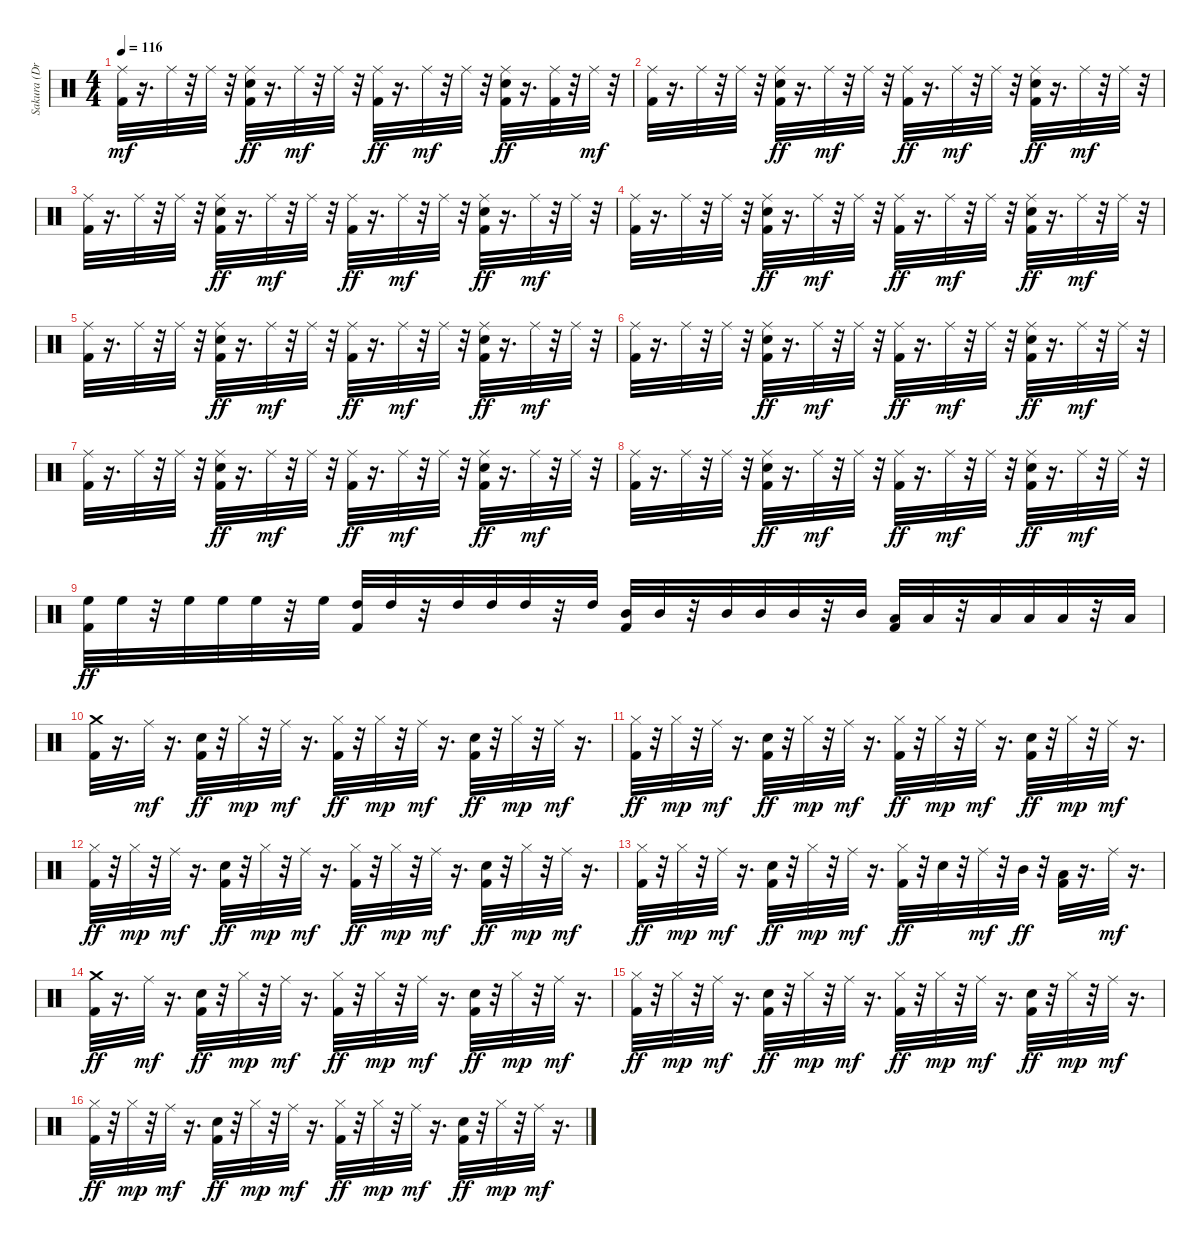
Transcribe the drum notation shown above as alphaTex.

\track ("Sakura (Drums)" "Sakura (Dr") {instrument percussion}
\staff {score}
\articulation defaults
\ts (4 4)
\tempo 116
\clef neutral
\ks c
("Kick (hit) 2" "Ride (middle)").32{dy mf} r.16{d} "Ride (middle)".32 r.32 "Ride (middle)".32 r.32 ("Ride (middle)" "Electric Snare (hit)" "Kick (hit) 2").32{dy ff} r.16{d} "Ride (middle)".32{dy mf} r.32 "Ride (middle)".32 r.32 ("Ride (middle)" "Kick (hit) 2").32{dy ff} r.16{d} "Ride (middle)".32{dy mf} r.32 "Ride (middle)".32 r.32 ("Ride (middle)" "Electric Snare (hit)" "Kick (hit) 2").32{dy ff} r.16{d} ("Ride (middle)" "Kick (hit) 2").32 r.32 "Ride (middle)".32{dy mf} r.32 |
("Kick (hit) 2" "Ride (middle)").32 r.16{d} "Ride (middle)".32 r.32 "Ride (middle)".32 r.32 ("Ride (middle)" "Electric Snare (hit)" "Kick (hit) 2").32{dy ff} r.16{d} "Ride (middle)".32{dy mf} r.32 "Ride (middle)".32 r.32 ("Ride (middle)" "Kick (hit) 2").32{dy ff} r.16{d} "Ride (middle)".32{dy mf} r.32 "Ride (middle)".32 r.32 ("Ride (middle)" "Electric Snare (hit)" "Kick (hit) 2").32{dy ff} r.16{d} "Ride (middle)".32{dy mf} r.32 "Ride (middle)".32 r.32 |
("Kick (hit) 2" "Ride (middle)").32 r.16{d} "Ride (middle)".32 r.32 "Ride (middle)".32 r.32 ("Ride (middle)" "Electric Snare (hit)" "Kick (hit) 2").32{dy ff} r.16{d} "Ride (middle)".32{dy mf} r.32 "Ride (middle)".32 r.32 ("Ride (middle)" "Kick (hit) 2").32{dy ff} r.16{d} "Ride (middle)".32{dy mf} r.32 "Ride (middle)".32 r.32 ("Ride (middle)" "Electric Snare (hit)" "Kick (hit) 2").32{dy ff} r.16{d} "Ride (middle)".32{dy mf} r.32 "Ride (middle)".32 r.32 |
("Kick (hit) 2" "Ride (middle)").32 r.16{d} "Ride (middle)".32 r.32 "Ride (middle)".32 r.32 ("Ride (middle)" "Electric Snare (hit)" "Kick (hit) 2").32{dy ff} r.16{d} "Ride (middle)".32{dy mf} r.32 "Ride (middle)".32 r.32 ("Ride (middle)" "Kick (hit) 2").32{dy ff} r.16{d} "Ride (middle)".32{dy mf} r.32 "Ride (middle)".32 r.32 ("Ride (middle)" "Electric Snare (hit)" "Kick (hit) 2").32{dy ff} r.16{d} "Ride (middle)".32{dy mf} r.32 "Ride (middle)".32 r.32 |
("Kick (hit) 2" "Ride (middle)").32 r.16{d} "Ride (middle)".32 r.32 "Ride (middle)".32 r.32 ("Ride (middle)" "Electric Snare (hit)" "Kick (hit) 2").32{dy ff} r.16{d} "Ride (middle)".32{dy mf} r.32 "Ride (middle)".32 r.32 ("Ride (middle)" "Kick (hit) 2").32{dy ff} r.16{d} "Ride (middle)".32{dy mf} r.32 "Ride (middle)".32 r.32 ("Ride (middle)" "Electric Snare (hit)" "Kick (hit) 2").32{dy ff} r.16{d} "Ride (middle)".32{dy mf} r.32 "Ride (middle)".32 r.32 |
("Kick (hit) 2" "Ride (middle)").32 r.16{d} "Ride (middle)".32 r.32 "Ride (middle)".32 r.32 ("Ride (middle)" "Electric Snare (hit)" "Kick (hit) 2").32{dy ff} r.16{d} "Ride (middle)".32{dy mf} r.32 "Ride (middle)".32 r.32 ("Ride (middle)" "Kick (hit) 2").32{dy ff} r.16{d} "Ride (middle)".32{dy mf} r.32 "Ride (middle)".32 r.32 ("Ride (middle)" "Electric Snare (hit)" "Kick (hit) 2").32{dy ff} r.16{d} "Ride (middle)".32{dy mf} r.32 "Ride (middle)".32 r.32 |
("Kick (hit) 2" "Ride (middle)").32 r.16{d} "Ride (middle)".32 r.32 "Ride (middle)".32 r.32 ("Ride (middle)" "Electric Snare (hit)" "Kick (hit) 2").32{dy ff} r.16{d} "Ride (middle)".32{dy mf} r.32 "Ride (middle)".32 r.32 ("Ride (middle)" "Kick (hit) 2").32{dy ff} r.16{d} "Ride (middle)".32{dy mf} r.32 "Ride (middle)".32 r.32 ("Ride (middle)" "Electric Snare (hit)" "Kick (hit) 2").32{dy ff} r.16{d} "Ride (middle)".32{dy mf} r.32 "Ride (middle)".32 r.32 |
("Kick (hit) 2" "Ride (middle)").32 r.16{d} "Ride (middle)".32 r.32 "Ride (middle)".32 r.32 ("Ride (middle)" "Electric Snare (hit)" "Kick (hit) 2").32{dy ff} r.16{d} "Ride (middle)".32{dy mf} r.32 "Ride (middle)".32 r.32 ("Ride (middle)" "Kick (hit) 2").32{dy ff} r.16{d} "Ride (middle)".32{dy mf} r.32 "Ride (middle)".32 r.32 ("Ride (middle)" "Electric Snare (hit)" "Kick (hit) 2").32{dy ff} r.16{d} "Ride (middle)".32{dy mf} r.32 "Ride (middle)".32 r.32 |
("High Floor Tom (hit)" "Kick (hit) 2").32{dy ff} "High Floor Tom (hit)".32 r.32 "High Floor Tom (hit)".32 "High Floor Tom (hit)".32 "High Floor Tom (hit)".32 r.32 "High Floor Tom (hit)".32 ("High Tom (hit)" "Kick (hit) 2").32 "High Tom (hit)".32 r.32 "High Tom (hit)".32 "High Tom (hit)".32 "High Tom (hit)".32 r.32 "High Tom (hit)".32 ("Mid Tom (hit)" "Kick (hit) 2").32 "Mid Tom (hit)".32 r.32 "Mid Tom (hit)".32 "Mid Tom (hit)".32 "Mid Tom (hit)".32 r.32 "Mid Tom (hit)".32 ("Low Tom (hit)" "Kick (hit) 2").32 "Low Tom (hit)".32 r.32 "Low Tom (hit)".32 "Low Tom (hit)".32 "Low Tom (hit)".32 r.32 "Low Tom (hit)".32 |
("Crash medium (hit)" "Kick (hit) 2").32 r.16{d} "Ride (middle)".32{dy mf} r.16{d} ("Electric Snare (hit)" "Kick (hit) 2").32{dy ff} r.32 "Hi-Hat (closed)".32{dy mp} r.32 "Ride (middle)".32{dy mf} r.16{d} ("Hi-Hat (closed)" "Kick (hit) 2").32{dy ff} r.32 "Hi-Hat (closed)".32{dy mp} r.32 "Ride (middle)".32{dy mf} r.16{d} ("Electric Snare (hit)" "Kick (hit) 2").32{dy ff} r.32 "Hi-Hat (closed)".32{dy mp} r.32 "Ride (middle)".32{dy mf} r.16{d} |
("Hi-Hat (closed)" "Kick (hit) 2").32{dy ff} r.32 "Hi-Hat (closed)".32{dy mp} r.32 "Ride (middle)".32{dy mf} r.16{d} ("Electric Snare (hit)" "Kick (hit) 2").32{dy ff} r.32 "Hi-Hat (closed)".32{dy mp} r.32 "Ride (middle)".32{dy mf} r.16{d} ("Hi-Hat (closed)" "Kick (hit) 2").32{dy ff} r.32 "Hi-Hat (closed)".32{dy mp} r.32 "Ride (middle)".32{dy mf} r.16{d} ("Electric Snare (hit)" "Kick (hit) 2").32{dy ff} r.32 "Hi-Hat (closed)".32{dy mp} r.32 "Ride (middle)".32{dy mf} r.16{d} |
("Hi-Hat (closed)" "Kick (hit) 2").32{dy ff} r.32 "Hi-Hat (closed)".32{dy mp} r.32 "Ride (middle)".32{dy mf} r.16{d} ("Electric Snare (hit)" "Kick (hit) 2").32{dy ff} r.32 "Hi-Hat (closed)".32{dy mp} r.32 "Ride (middle)".32{dy mf} r.16{d} ("Hi-Hat (closed)" "Kick (hit) 2").32{dy ff} r.32 "Hi-Hat (closed)".32{dy mp} r.32 "Ride (middle)".32{dy mf} r.16{d} ("Electric Snare (hit)" "Kick (hit) 2").32{dy ff} r.32 "Hi-Hat (closed)".32{dy mp} r.32 "Ride (middle)".32{dy mf} r.16{d} |
("Hi-Hat (closed)" "Kick (hit) 2").32{dy ff} r.32 "Hi-Hat (closed)".32{dy mp} r.32 "Ride (middle)".32{dy mf} r.16{d} ("Electric Snare (hit)" "Kick (hit) 2").32{dy ff} r.32 "Hi-Hat (closed)".32{dy mp} r.32 "Ride (middle)".32{dy mf} r.16{d} ("Hi-Hat (closed)" "Kick (hit) 2").32{dy ff} r.32 "Electric Snare (hit)".32 r.32 "Ride (middle)".32{dy mf} r.32 "Mid Tom (hit)".32{dy ff} r.32 ("Low Tom (hit)" "Kick (hit) 2").32 r.16{d} "Ride (middle)".32{dy mf} r.16{d} |
("Crash medium (hit)" "Kick (hit) 2").32{dy ff} r.16{d} "Ride (middle)".32{dy mf} r.16{d} ("Electric Snare (hit)" "Kick (hit) 2").32{dy ff} r.32 "Hi-Hat (closed)".32{dy mp} r.32 "Ride (middle)".32{dy mf} r.16{d} ("Hi-Hat (closed)" "Kick (hit) 2").32{dy ff} r.32 "Hi-Hat (closed)".32{dy mp} r.32 "Ride (middle)".32{dy mf} r.16{d} ("Electric Snare (hit)" "Kick (hit) 2").32{dy ff} r.32 "Hi-Hat (closed)".32{dy mp} r.32 "Ride (middle)".32{dy mf} r.16{d} |
("Hi-Hat (closed)" "Kick (hit) 2").32{dy ff} r.32 "Hi-Hat (closed)".32{dy mp} r.32 "Ride (middle)".32{dy mf} r.16{d} ("Electric Snare (hit)" "Kick (hit) 2").32{dy ff} r.32 "Hi-Hat (closed)".32{dy mp} r.32 "Ride (middle)".32{dy mf} r.16{d} ("Hi-Hat (closed)" "Kick (hit) 2").32{dy ff} r.32 "Hi-Hat (closed)".32{dy mp} r.32 "Ride (middle)".32{dy mf} r.16{d} ("Electric Snare (hit)" "Kick (hit) 2").32{dy ff} r.32 "Hi-Hat (closed)".32{dy mp} r.32 "Ride (middle)".32{dy mf} r.16{d} |
("Hi-Hat (closed)" "Kick (hit) 2").32{dy ff} r.32 "Hi-Hat (closed)".32{dy mp} r.32 "Ride (middle)".32{dy mf} r.16{d} ("Electric Snare (hit)" "Kick (hit) 2").32{dy ff} r.32 "Hi-Hat (closed)".32{dy mp} r.32 "Ride (middle)".32{dy mf} r.16{d} ("Hi-Hat (closed)" "Kick (hit) 2").32{dy ff} r.32 "Hi-Hat (closed)".32{dy mp} r.32 "Ride (middle)".32{dy mf} r.16{d} ("Electric Snare (hit)" "Kick (hit) 2").32{dy ff} r.32 "Hi-Hat (closed)".32{dy mp} r.32 "Ride (middle)".32{dy mf} r.16{d}
